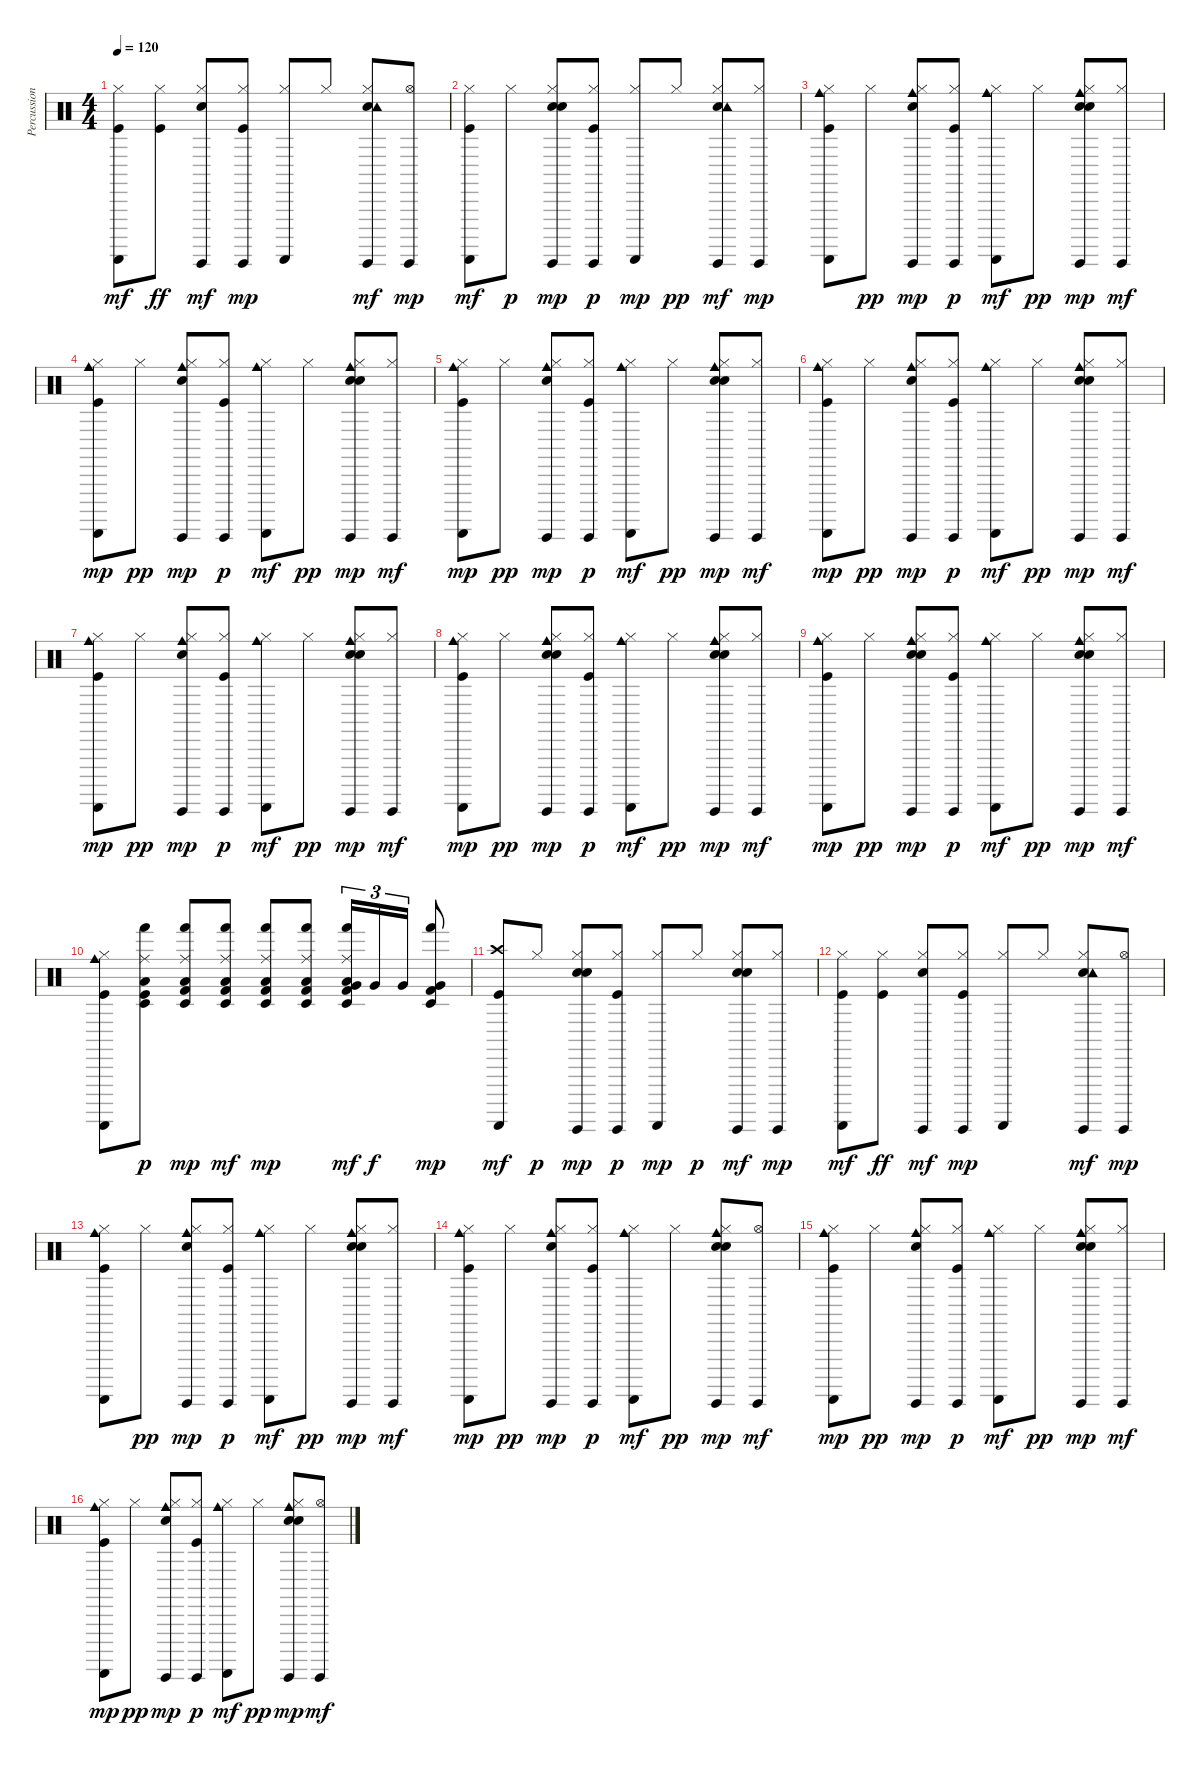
\track ("Percussions" "Percussion") {instrument percussion}
\staff {score}
\articulation defaults
\ts (4 4)
\tempo 120
\clef neutral
\ks c
("Hi-Hat (closed)" "Guiro (scrap-return)" "Kick (hit)").8{dy mf} ("Hi-Hat (closed)" "Kick (hit)").8{dy ff} ("Hi-Hat (closed)" "Guiro (hit)" "Snare (hit) 2").8{dy mf} ("Hi-Hat (closed)" "Guiro (hit)" "Kick (hit)").8{dy mp} ("Hi-Hat (closed)" "Guiro (scrap-return)").8 "Hi-Hat (closed)".8 ("Hi-Hat (closed)" "Guiro (hit)" "Snare (hit) 2" "Tambourine (hit)").8{dy mf} ("Hi-Hat (open)" "Guiro (hit)").8{dy mp} |
("Hi-Hat (closed)" "Guiro (scrap-return)" "Kick (hit)").8{dy mf} "Hi-Hat (closed)".8{dy p} ("Hi-Hat (closed)" "Guiro (hit)" "Snare (hit) 2" "Hand Clap (hit)").8{dy mp} ("Hi-Hat (closed)" "Guiro (hit)" "Kick (hit)").8{dy p} ("Hi-Hat (closed)" "Guiro (scrap-return)").8{dy mp} "Hi-Hat (closed)".8{dy pp} ("Hi-Hat (closed)" "Guiro (hit)" "Snare (hit) 2" "Tambourine (hit)").8{dy mf} ("Hi-Hat (closed)" "Guiro (hit)").8{dy mp} |
("Hi-Hat (closed)" "Guiro (scrap-return)" "Cowbell medium (hit)" "Kick (hit)").8 "Hi-Hat (closed)".8{dy pp} ("Hi-Hat (closed)" "Guiro (hit)" "Snare (hit) 2" "Cowbell medium (hit)").8{dy mp} ("Hi-Hat (closed)" "Guiro (hit)" "Kick (hit)").8{dy p} ("Hi-Hat (closed)" "Guiro (scrap-return)" "Cowbell medium (hit)").8{dy mf} "Hi-Hat (closed)".8{dy pp} ("Hi-Hat (closed)" "Guiro (hit)" "Snare (hit) 2" "Cowbell medium (hit)" "Hand Clap (hit)").8{dy mp} ("Hi-Hat (closed)" "Guiro (hit)").8{dy mf} |
("Hi-Hat (closed)" "Guiro (scrap-return)" "Cowbell medium (hit)" "Kick (hit)").8{dy mp} "Hi-Hat (closed)".8{dy pp} ("Hi-Hat (closed)" "Guiro (hit)" "Snare (hit) 2" "Cowbell medium (hit)").8{dy mp} ("Hi-Hat (closed)" "Guiro (hit)" "Kick (hit)").8{dy p} ("Hi-Hat (closed)" "Guiro (scrap-return)" "Cowbell medium (hit)").8{dy mf} "Hi-Hat (closed)".8{dy pp} ("Hi-Hat (closed)" "Guiro (hit)" "Snare (hit) 2" "Cowbell medium (hit)" "Hand Clap (hit)").8{dy mp} ("Hi-Hat (closed)" "Guiro (hit)").8{dy mf} |
("Hi-Hat (closed)" "Guiro (scrap-return)" "Cowbell medium (hit)" "Kick (hit)").8{dy mp} "Hi-Hat (closed)".8{dy pp} ("Hi-Hat (closed)" "Guiro (hit)" "Snare (hit) 2" "Cowbell medium (hit)").8{dy mp} ("Hi-Hat (closed)" "Guiro (hit)" "Kick (hit)").8{dy p} ("Hi-Hat (closed)" "Guiro (scrap-return)" "Cowbell medium (hit)").8{dy mf} "Hi-Hat (closed)".8{dy pp} ("Hi-Hat (closed)" "Guiro (hit)" "Snare (hit) 2" "Cowbell medium (hit)" "Hand Clap (hit)").8{dy mp} ("Hi-Hat (closed)" "Guiro (hit)").8{dy mf} |
("Hi-Hat (closed)" "Guiro (scrap-return)" "Cowbell medium (hit)" "Kick (hit)").8{dy mp} "Hi-Hat (closed)".8{dy pp} ("Hi-Hat (closed)" "Guiro (hit)" "Snare (hit) 2" "Cowbell medium (hit)").8{dy mp} ("Hi-Hat (closed)" "Guiro (hit)" "Kick (hit)").8{dy p} ("Hi-Hat (closed)" "Guiro (scrap-return)" "Cowbell medium (hit)").8{dy mf} "Hi-Hat (closed)".8{dy pp} ("Hi-Hat (closed)" "Guiro (hit)" "Snare (hit) 2" "Cowbell medium (hit)" "Hand Clap (hit)").8{dy mp} ("Hi-Hat (closed)" "Guiro (hit)").8{dy mf} |
("Hi-Hat (closed)" "Guiro (scrap-return)" "Cowbell medium (hit)" "Kick (hit)").8{dy mp} "Hi-Hat (closed)".8{dy pp} ("Hi-Hat (closed)" "Guiro (hit)" "Snare (hit) 2" "Cowbell medium (hit)").8{dy mp} ("Hi-Hat (closed)" "Guiro (hit)" "Kick (hit)").8{dy p} ("Hi-Hat (closed)" "Guiro (scrap-return)" "Cowbell medium (hit)").8{dy mf} "Hi-Hat (closed)".8{dy pp} ("Hi-Hat (closed)" "Guiro (hit)" "Snare (hit) 2" "Cowbell medium (hit)" "Hand Clap (hit)").8{dy mp} ("Hi-Hat (closed)" "Guiro (hit)").8{dy mf} |
("Hi-Hat (closed)" "Guiro (scrap-return)" "Cowbell medium (hit)" "Kick (hit)").8{dy mp} "Hi-Hat (closed)".8{dy pp} ("Hi-Hat (closed)" "Guiro (hit)" "Snare (hit) 2" "Cowbell medium (hit)" "Hand Clap (hit)").8{dy mp} ("Hi-Hat (closed)" "Guiro (hit)" "Kick (hit)").8{dy p} ("Hi-Hat (closed)" "Guiro (scrap-return)" "Cowbell medium (hit)").8{dy mf} "Hi-Hat (closed)".8{dy pp} ("Hi-Hat (closed)" "Guiro (hit)" "Snare (hit) 2" "Cowbell medium (hit)" "Hand Clap (hit)").8{dy mp} ("Hi-Hat (closed)" "Guiro (hit)").8{dy mf} |
("Hi-Hat (closed)" "Guiro (scrap-return)" "Cowbell medium (hit)" "Kick (hit)").8{dy mp} "Hi-Hat (closed)".8{dy pp} ("Hi-Hat (closed)" "Guiro (hit)" "Snare (hit) 2" "Cowbell medium (hit)" "Hand Clap (hit)").8{dy mp} ("Hi-Hat (closed)" "Guiro (hit)" "Kick (hit)").8{dy p} ("Hi-Hat (closed)" "Guiro (scrap-return)" "Cowbell medium (hit)").8{dy mf} "Hi-Hat (closed)".8{dy pp} ("Hi-Hat (closed)" "Guiro (hit)" "Snare (hit) 2" "Cowbell medium (hit)" "Hand Clap (hit)").8{dy mp} ("Hi-Hat (closed)" "Guiro (hit)").8{dy mf} |
("Hi-Hat (closed)" "Guiro (scrap-return)" "Cowbell medium (hit)" "Kick (hit)").8 ("Timbale low (hit)" "Hand (hit)" "Ride (middle)" "Low Tom (hit)" "Kick (hit)").8{dy p} ("Timbale low (hit)" "Hand (hit)" "Ride (middle)" "Low Tom (hit)" "Kick (hit) 2").8{dy mp} ("Timbale low (hit)" "Hand (hit)" "Ride (middle)" "Low Tom (hit)" "Kick (hit) 2").8{dy mf} ("Timbale low (hit)" "Hand (hit)" "Ride (middle)" "Low Tom (hit)" "Kick (hit) 2").8{dy mp} ("Timbale low (hit)" "Hand (hit)" "Ride (middle)" "Low Tom (hit)" "Kick (hit) 2").8 ("Timbale low (hit)" "Hand (hit)" "Ride (middle)" "Low Tom (hit)" "Kick (hit) 2" "Very Low Tom (hit)").16{tu (3 2) dy mf} "Very Low Tom (hit)".16{tu (3 2) dy f} "Very Low Tom (hit)".16{tu (3 2)} ("Timbale low (hit)" "Hand (hit)" "Kick (hit) 2" "Very Low Tom (hit)").8{dy mp} |
("Crash high (hit)" "Guiro (scrap-return)" "Kick (hit)").8{dy mf} "Hi-Hat (closed)".8{dy p} ("Hi-Hat (closed)" "Guiro (hit)" "Snare (hit) 2" "Hand Clap (hit)").8{dy mp} ("Hi-Hat (closed)" "Guiro (hit)" "Kick (hit)").8{dy p} ("Hi-Hat (closed)" "Guiro (scrap-return)").8{dy mp} "Hi-Hat (closed)".8{dy p} ("Hi-Hat (closed)" "Guiro (hit)" "Snare (hit) 2" "Hand Clap (hit)").8{dy mf} ("Hi-Hat (closed)" "Guiro (hit)").8{dy mp} |
("Hi-Hat (closed)" "Guiro (scrap-return)" "Kick (hit)").8{dy mf} ("Hi-Hat (closed)" "Kick (hit)").8{dy ff} ("Hi-Hat (closed)" "Guiro (hit)" "Snare (hit) 2").8{dy mf} ("Hi-Hat (closed)" "Guiro (hit)" "Kick (hit)").8{dy mp} ("Hi-Hat (closed)" "Guiro (scrap-return)").8 "Hi-Hat (closed)".8 ("Hi-Hat (closed)" "Guiro (hit)" "Snare (hit) 2" "Tambourine (hit)").8{dy mf} ("Hi-Hat (open)" "Guiro (hit)").8{dy mp} |
("Hi-Hat (closed)" "Guiro (scrap-return)" "Cowbell medium (hit)" "Kick (hit)").8 "Hi-Hat (closed)".8{dy pp} ("Hi-Hat (closed)" "Guiro (hit)" "Snare (hit) 2" "Cowbell medium (hit)").8{dy mp} ("Hi-Hat (closed)" "Guiro (hit)" "Kick (hit)").8{dy p} ("Hi-Hat (closed)" "Guiro (scrap-return)" "Cowbell medium (hit)").8{dy mf} "Hi-Hat (closed)".8{dy pp} ("Hi-Hat (closed)" "Guiro (hit)" "Snare (hit) 2" "Cowbell medium (hit)" "Hand Clap (hit)").8{dy mp} ("Hi-Hat (closed)" "Guiro (hit)").8{dy mf} |
("Hi-Hat (closed)" "Guiro (scrap-return)" "Cowbell medium (hit)" "Kick (hit)").8{dy mp} "Hi-Hat (closed)".8{dy pp} ("Hi-Hat (closed)" "Guiro (hit)" "Snare (hit) 2" "Cowbell medium (hit)").8{dy mp} ("Hi-Hat (closed)" "Guiro (hit)" "Kick (hit)").8{dy p} ("Hi-Hat (closed)" "Guiro (scrap-return)" "Cowbell medium (hit)").8{dy mf} "Hi-Hat (closed)".8{dy pp} ("Hi-Hat (closed)" "Guiro (hit)" "Snare (hit) 2" "Cowbell medium (hit)" "Hand Clap (hit)").8{dy mp} ("Hi-Hat (open)" "Guiro (hit)").8{dy mf} |
("Hi-Hat (closed)" "Guiro (scrap-return)" "Cowbell medium (hit)" "Kick (hit)").8{dy mp} "Hi-Hat (closed)".8{dy pp} ("Hi-Hat (closed)" "Guiro (hit)" "Snare (hit) 2" "Cowbell medium (hit)").8{dy mp} ("Hi-Hat (closed)" "Guiro (hit)" "Kick (hit)").8{dy p} ("Hi-Hat (closed)" "Guiro (scrap-return)" "Cowbell medium (hit)").8{dy mf} "Hi-Hat (closed)".8{dy pp} ("Hi-Hat (closed)" "Guiro (hit)" "Snare (hit) 2" "Cowbell medium (hit)" "Hand Clap (hit)").8{dy mp} ("Hi-Hat (closed)" "Guiro (hit)").8{dy mf} |
("Hi-Hat (closed)" "Guiro (scrap-return)" "Cowbell medium (hit)" "Kick (hit)").8{dy mp} "Hi-Hat (closed)".8{dy pp} ("Hi-Hat (closed)" "Guiro (hit)" "Snare (hit) 2" "Cowbell medium (hit)").8{dy mp} ("Hi-Hat (closed)" "Guiro (hit)" "Kick (hit)").8{dy p} ("Hi-Hat (closed)" "Guiro (scrap-return)" "Cowbell medium (hit)").8{dy mf} "Hi-Hat (closed)".8{dy pp} ("Hi-Hat (closed)" "Guiro (hit)" "Snare (hit) 2" "Cowbell medium (hit)" "Hand Clap (hit)").8{dy mp} ("Hi-Hat (open)" "Guiro (hit)").8{dy mf}
